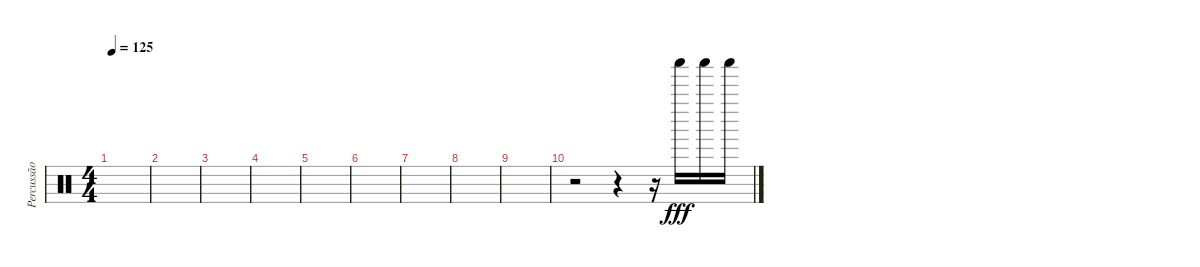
\track ("Percussão" "Percussão") {instrument percussion}
\staff {score}
\articulation defaults
\ts (4 4)
\tempo 125
\clef neutral
\ks c
|
|
|
|
|
|
|
|
|
r.2 r.4 r.16 "Shaker (hit)".16{dy fff} "Shaker (hit)".16 "Shaker (hit)".16
